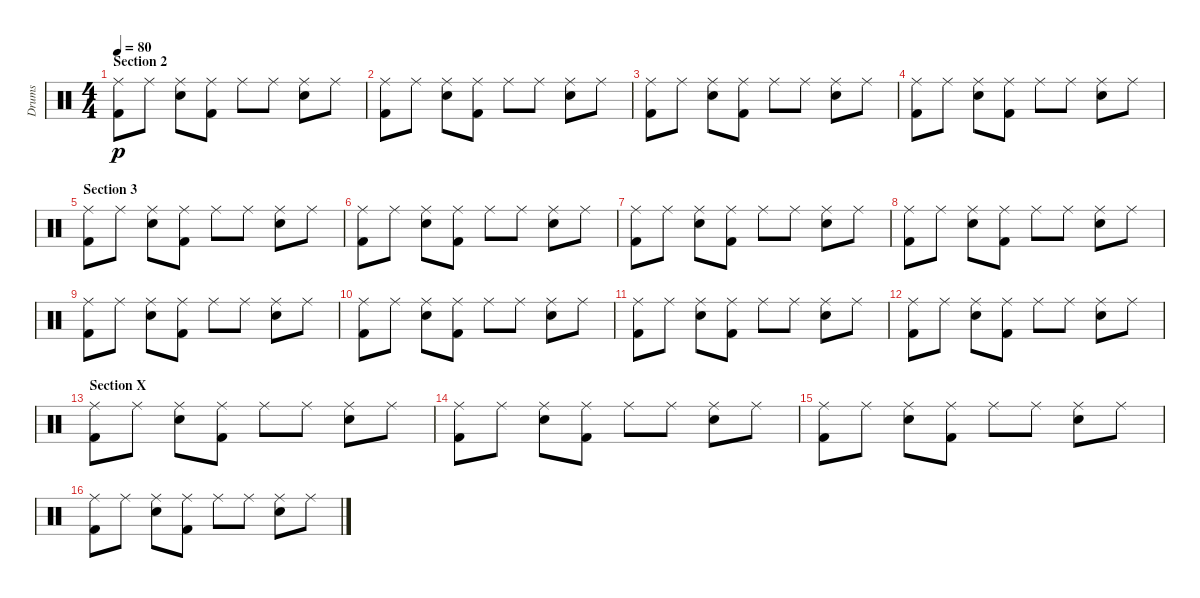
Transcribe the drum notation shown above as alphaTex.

\track ("Drums" "Drums") {instrument percussion}
\staff {score}
\articulation defaults
\ts (4 4)
\section ("" "Section 2")
\tempo 80
\clef neutral
\ks c
("Ride (middle)" "Kick (hit) 2").8{dy p} "Ride (middle)".8 ("Ride (middle)" "Electric Snare (hit)").8 ("Ride (middle)" "Kick (hit) 2").8 "Ride (middle)".8 "Ride (middle)".8 ("Ride (middle)" "Electric Snare (hit)").8 "Ride (middle)".8 |
("Ride (middle)" "Kick (hit) 2").8 "Ride (middle)".8 ("Ride (middle)" "Electric Snare (hit)").8 ("Ride (middle)" "Kick (hit) 2").8 "Ride (middle)".8 "Ride (middle)".8 ("Ride (middle)" "Electric Snare (hit)").8 "Ride (middle)".8 |
("Ride (middle)" "Kick (hit) 2").8 "Ride (middle)".8 ("Ride (middle)" "Electric Snare (hit)").8 ("Ride (middle)" "Kick (hit) 2").8 "Ride (middle)".8 "Ride (middle)".8 ("Ride (middle)" "Electric Snare (hit)").8 "Ride (middle)".8 |
("Ride (middle)" "Kick (hit) 2").8 "Ride (middle)".8 ("Ride (middle)" "Electric Snare (hit)").8 ("Ride (middle)" "Kick (hit) 2").8 "Ride (middle)".8 "Ride (middle)".8 ("Ride (middle)" "Electric Snare (hit)").8 "Ride (middle)".8 |
\section ("" "Section 3")
("Ride (middle)" "Kick (hit) 2").8 "Ride (middle)".8 ("Ride (middle)" "Electric Snare (hit)").8 ("Ride (middle)" "Kick (hit) 2").8 "Ride (middle)".8 "Ride (middle)".8 ("Ride (middle)" "Electric Snare (hit)").8 "Ride (middle)".8 |
("Ride (middle)" "Kick (hit) 2").8 "Ride (middle)".8 ("Ride (middle)" "Electric Snare (hit)").8 ("Ride (middle)" "Kick (hit) 2").8 "Ride (middle)".8 "Ride (middle)".8 ("Ride (middle)" "Electric Snare (hit)").8 "Ride (middle)".8 |
("Ride (middle)" "Kick (hit) 2").8 "Ride (middle)".8 ("Ride (middle)" "Electric Snare (hit)").8 ("Ride (middle)" "Kick (hit) 2").8 "Ride (middle)".8 "Ride (middle)".8 ("Ride (middle)" "Electric Snare (hit)").8 "Ride (middle)".8 |
("Ride (middle)" "Kick (hit) 2").8 "Ride (middle)".8 ("Ride (middle)" "Electric Snare (hit)").8 ("Ride (middle)" "Kick (hit) 2").8 "Ride (middle)".8 "Ride (middle)".8 ("Ride (middle)" "Electric Snare (hit)").8 "Ride (middle)".8 |
("Ride (middle)" "Kick (hit) 2").8 "Ride (middle)".8 ("Ride (middle)" "Electric Snare (hit)").8 ("Ride (middle)" "Kick (hit) 2").8 "Ride (middle)".8 "Ride (middle)".8 ("Ride (middle)" "Electric Snare (hit)").8 "Ride (middle)".8 |
("Ride (middle)" "Kick (hit) 2").8 "Ride (middle)".8 ("Ride (middle)" "Electric Snare (hit)").8 ("Ride (middle)" "Kick (hit) 2").8 "Ride (middle)".8 "Ride (middle)".8 ("Ride (middle)" "Electric Snare (hit)").8 "Ride (middle)".8 |
("Ride (middle)" "Kick (hit) 2").8 "Ride (middle)".8 ("Ride (middle)" "Electric Snare (hit)").8 ("Ride (middle)" "Kick (hit) 2").8 "Ride (middle)".8 "Ride (middle)".8 ("Ride (middle)" "Electric Snare (hit)").8 "Ride (middle)".8 |
("Ride (middle)" "Kick (hit) 2").8 "Ride (middle)".8 ("Ride (middle)" "Electric Snare (hit)").8 ("Ride (middle)" "Kick (hit) 2").8 "Ride (middle)".8 "Ride (middle)".8 ("Ride (middle)" "Electric Snare (hit)").8 "Ride (middle)".8 |
\section ("" "Section X")
("Ride (middle)" "Kick (hit) 2").8 "Ride (middle)".8 ("Ride (middle)" "Electric Snare (hit)").8 ("Ride (middle)" "Kick (hit) 2").8 "Ride (middle)".8 "Ride (middle)".8 ("Ride (middle)" "Electric Snare (hit)").8 "Ride (middle)".8 |
("Ride (middle)" "Kick (hit) 2").8 "Ride (middle)".8 ("Ride (middle)" "Electric Snare (hit)").8 ("Ride (middle)" "Kick (hit) 2").8 "Ride (middle)".8 "Ride (middle)".8 ("Ride (middle)" "Electric Snare (hit)").8 "Ride (middle)".8 |
("Ride (middle)" "Kick (hit) 2").8 "Ride (middle)".8 ("Ride (middle)" "Electric Snare (hit)").8 ("Ride (middle)" "Kick (hit) 2").8 "Ride (middle)".8 "Ride (middle)".8 ("Ride (middle)" "Electric Snare (hit)").8 "Ride (middle)".8 |
("Ride (middle)" "Kick (hit) 2").8 "Ride (middle)".8 ("Ride (middle)" "Electric Snare (hit)").8 ("Ride (middle)" "Kick (hit) 2").8 "Ride (middle)".8 "Ride (middle)".8 ("Ride (middle)" "Electric Snare (hit)").8 "Ride (middle)".8
